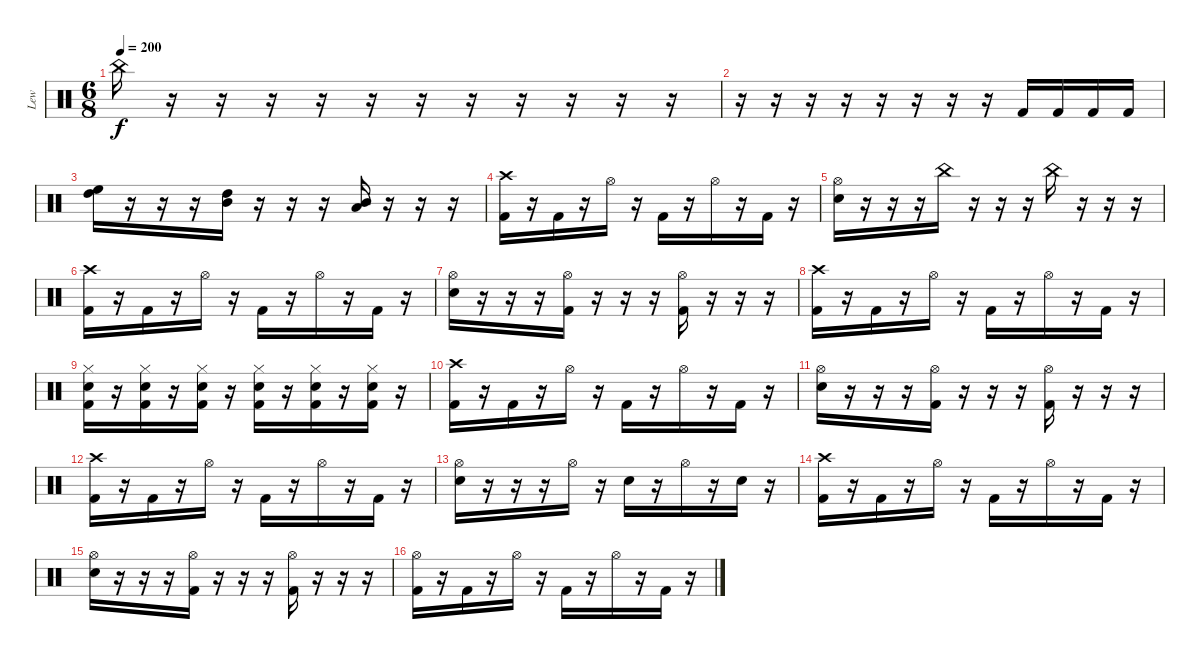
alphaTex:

\track ("Lew" "Lew") {instrument percussion}
\staff {score}
\articulation defaults
\ts (6 8)
\tempo 200
\clef neutral
\ks c "China (hit)".16{dy f}
r.16 r.16 r.16 r.16 r.16 r.16 r.16 r.16 r.16 r.16 r.16 |
r.16 r.16 r.16 r.16 r.16 r.16 r.16 r.16 "Kick (hit) 2".16 "Kick (hit) 2".16 "Kick (hit) 2".16 "Kick (hit) 2".16 |
("High Tom (hit)" "High Floor Tom (hit)").16 r.16 r.16 r.16 ("Mid Tom (hit)" "High Tom (hit)").16 r.16 r.16 r.16 ("Low Tom (hit)" "Mid Tom (hit)").16 r.16 r.16 r.16 |
("Crash high (hit)" "Kick (hit) 2").16 r.16 "Kick (hit) 2".16 r.16 "Hi-Hat (open)".16 r.16 "Kick (hit) 2".16 r.16 "Hi-Hat (open)".16 r.16 "Kick (hit) 2".16 r.16 |
("Hi-Hat (open)" "Electric Snare (hit)").16 r.16 r.16 r.16 "China (hit)".16 r.16 r.16 r.16 "China (hit)".16 r.16 r.16 r.16 |
("Crash high (hit)" "Kick (hit) 2").16 r.16 "Kick (hit) 2".16 r.16 "Hi-Hat (open)".16 r.16 "Kick (hit) 2".16 r.16 "Hi-Hat (open)".16 r.16 "Kick (hit) 2".16 r.16 |
("Hi-Hat (open)" "Electric Snare (hit)").16 r.16 r.16 r.16 ("Hi-Hat (open)" "Kick (hit) 2").16 r.16 r.16 r.16 ("Hi-Hat (open)" "Kick (hit) 2").16 r.16 r.16 r.16 |
("Crash high (hit)" "Kick (hit) 2").16 r.16 "Kick (hit) 2".16 r.16 "Hi-Hat (open)".16 r.16 "Kick (hit) 2".16 r.16 "Hi-Hat (open)".16 r.16 "Kick (hit) 2".16 r.16 |
("Hi-Hat (closed)" "Electric Snare (hit)" "Kick (hit) 2").16 r.16 ("Hi-Hat (closed)" "Electric Snare (hit)" "Kick (hit) 2").16 r.16 ("Hi-Hat (closed)" "Electric Snare (hit)" "Kick (hit) 2").16 r.16 ("Hi-Hat (closed)" "Electric Snare (hit)" "Kick (hit) 2").16 r.16 ("Hi-Hat (closed)" "Electric Snare (hit)" "Kick (hit) 2").16 r.16 ("Hi-Hat (closed)" "Electric Snare (hit)" "Kick (hit) 2").16 r.16 |
("Crash high (hit)" "Kick (hit) 2").16 r.16 "Kick (hit) 2".16 r.16 "Hi-Hat (open)".16 r.16 "Kick (hit) 2".16 r.16 "Hi-Hat (open)".16 r.16 "Kick (hit) 2".16 r.16 |
("Hi-Hat (open)" "Electric Snare (hit)").16 r.16 r.16 r.16 ("Hi-Hat (open)" "Kick (hit) 2").16 r.16 r.16 r.16 ("Hi-Hat (open)" "Kick (hit) 2").16 r.16 r.16 r.16 |
("Crash high (hit)" "Kick (hit) 2").16 r.16 "Kick (hit) 2".16 r.16 "Hi-Hat (open)".16 r.16 "Kick (hit) 2".16 r.16 "Hi-Hat (open)".16 r.16 "Kick (hit) 2".16 r.16 |
("Hi-Hat (open)" "Electric Snare (hit)").16 r.16 r.16 r.16 "Hi-Hat (open)".16 r.16 "Electric Snare (hit)".16 r.16 "Hi-Hat (open)".16 r.16 "Electric Snare (hit)".16 r.16 |
("Crash high (hit)" "Kick (hit) 2").16 r.16 "Kick (hit) 2".16 r.16 "Hi-Hat (open)".16 r.16 "Kick (hit) 2".16 r.16 "Hi-Hat (open)".16 r.16 "Kick (hit) 2".16 r.16 |
("Hi-Hat (open)" "Electric Snare (hit)").16 r.16 r.16 r.16 ("Hi-Hat (open)" "Kick (hit) 2").16 r.16 r.16 r.16 ("Hi-Hat (open)" "Kick (hit) 2").16 r.16 r.16 r.16 |
("Hi-Hat (open)" "Kick (hit) 2").16 r.16 "Kick (hit) 2".16 r.16 "Hi-Hat (open)".16 r.16 "Kick (hit) 2".16 r.16 "Hi-Hat (open)".16 r.16 "Kick (hit) 2".16 r.16
